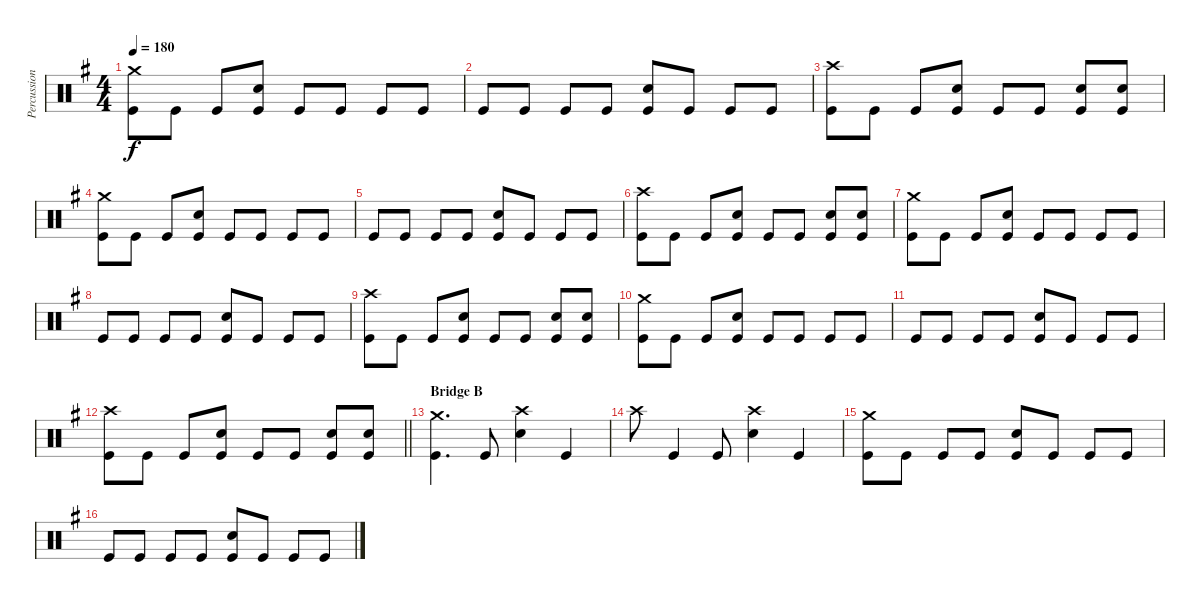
\track ("Percussion" "Percussion") {instrument percussion}
\staff {score}
\articulation defaults
\ts (4 4)
\tempo 180
\clef neutral
\ks g
("Crash medium (hit)" "Kick (hit)").8{dy f} "Kick (hit)".8 "Kick (hit)".8 ("Electric Snare (hit)" "Kick (hit)").8 "Kick (hit)".8 "Kick (hit)".8 "Kick (hit)".8 "Kick (hit)".8 |
"Kick (hit)".8 "Kick (hit)".8 "Kick (hit)".8 "Kick (hit)".8 ("Electric Snare (hit)" "Kick (hit)").8 "Kick (hit)".8 "Kick (hit)".8 "Kick (hit)".8 |
("Crash high (hit)" "Kick (hit)").8 "Kick (hit)".8 "Kick (hit)".8 ("Electric Snare (hit)" "Kick (hit)").8 "Kick (hit)".8 "Kick (hit)".8 ("Electric Snare (hit)" "Kick (hit)").8 ("Electric Snare (hit)" "Kick (hit)").8 |
("Crash medium (hit)" "Kick (hit)").8 "Kick (hit)".8 "Kick (hit)".8 ("Electric Snare (hit)" "Kick (hit)").8 "Kick (hit)".8 "Kick (hit)".8 "Kick (hit)".8 "Kick (hit)".8 |
"Kick (hit)".8 "Kick (hit)".8 "Kick (hit)".8 "Kick (hit)".8 ("Electric Snare (hit)" "Kick (hit)").8 "Kick (hit)".8 "Kick (hit)".8 "Kick (hit)".8 |
("Crash high (hit)" "Kick (hit)").8 "Kick (hit)".8 "Kick (hit)".8 ("Electric Snare (hit)" "Kick (hit)").8 "Kick (hit)".8 "Kick (hit)".8 ("Electric Snare (hit)" "Kick (hit)").8 ("Electric Snare (hit)" "Kick (hit)").8 |
("Crash medium (hit)" "Kick (hit)").8 "Kick (hit)".8 "Kick (hit)".8 ("Electric Snare (hit)" "Kick (hit)").8 "Kick (hit)".8 "Kick (hit)".8 "Kick (hit)".8 "Kick (hit)".8 |
"Kick (hit)".8 "Kick (hit)".8 "Kick (hit)".8 "Kick (hit)".8 ("Electric Snare (hit)" "Kick (hit)").8 "Kick (hit)".8 "Kick (hit)".8 "Kick (hit)".8 |
("Crash high (hit)" "Kick (hit)").8 "Kick (hit)".8 "Kick (hit)".8 ("Electric Snare (hit)" "Kick (hit)").8 "Kick (hit)".8 "Kick (hit)".8 ("Electric Snare (hit)" "Kick (hit)").8 ("Electric Snare (hit)" "Kick (hit)").8 |
("Crash medium (hit)" "Kick (hit)").8 "Kick (hit)".8 "Kick (hit)".8 ("Electric Snare (hit)" "Kick (hit)").8 "Kick (hit)".8 "Kick (hit)".8 "Kick (hit)".8 "Kick (hit)".8 |
"Kick (hit)".8 "Kick (hit)".8 "Kick (hit)".8 "Kick (hit)".8 ("Electric Snare (hit)" "Kick (hit)").8 "Kick (hit)".8 "Kick (hit)".8 "Kick (hit)".8 |
\barLineRight lightlight
("Crash high (hit)" "Kick (hit)").8 "Kick (hit)".8 "Kick (hit)".8 ("Electric Snare (hit)" "Kick (hit)").8 "Kick (hit)".8 "Kick (hit)".8 ("Electric Snare (hit)" "Kick (hit)").8 ("Electric Snare (hit)" "Kick (hit)").8 |
\section ("" "Bridge B")
("Crash medium (hit)" "Kick (hit)").4{d} "Kick (hit)".8 ("Crash high (hit)" "Electric Snare (hit)").4 "Kick (hit)".4 |
"Crash high (hit)".8 "Kick (hit)".4 "Kick (hit)".8 ("Crash high (hit)" "Electric Snare (hit)").4 "Kick (hit)".4 |
("Crash medium (hit)" "Kick (hit)").8 "Kick (hit)".8 "Kick (hit)".8 "Kick (hit)".8 ("Electric Snare (hit)" "Kick (hit)").8 "Kick (hit)".8 "Kick (hit)".8 "Kick (hit)".8 |
"Kick (hit)".8 "Kick (hit)".8 "Kick (hit)".8 "Kick (hit)".8 ("Electric Snare (hit)" "Kick (hit)").8 "Kick (hit)".8 "Kick (hit)".8 "Kick (hit)".8
